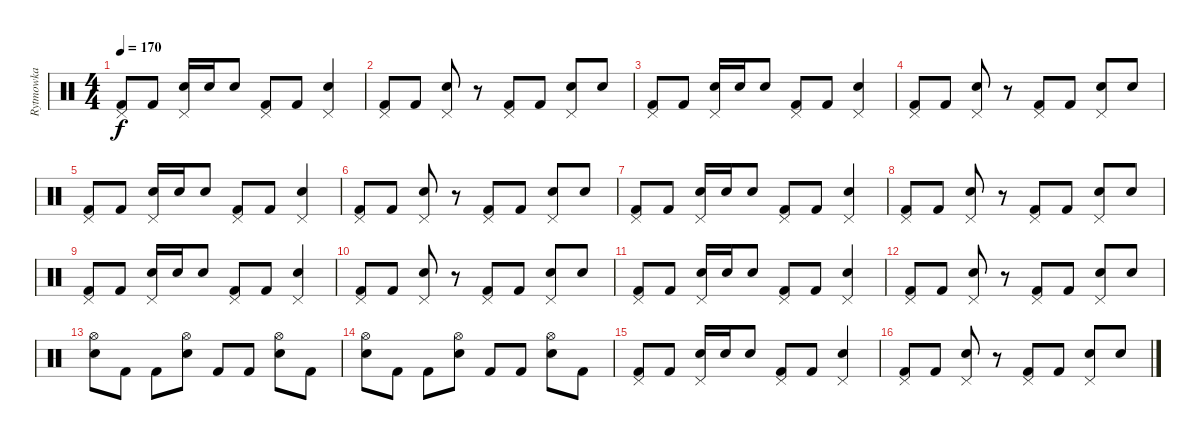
\track ("Rytmowka" "Rytmowka") {instrument percussion}
\staff {score}
\articulation defaults
\ts (4 4)
\tempo 170
\clef neutral
\ks c
("Pedal Hi-Hat (hit)" "Kick (hit) 2").8{dy f} "Kick (hit) 2".8 ("Pedal Hi-Hat (hit)" "Snare (hit) 2").16 "Snare (hit) 2".16 "Snare (hit) 2".8 ("Pedal Hi-Hat (hit)" "Kick (hit) 2").8 "Kick (hit) 2".8 ("Pedal Hi-Hat (hit)" "Snare (hit) 2").4 |
("Pedal Hi-Hat (hit)" "Kick (hit) 2").8 "Kick (hit) 2".8 ("Pedal Hi-Hat (hit)" "Snare (hit) 2").8 r.8 ("Pedal Hi-Hat (hit)" "Kick (hit) 2").8 "Kick (hit) 2".8 ("Pedal Hi-Hat (hit)" "Snare (hit) 2").8 "Snare (hit) 2".8 |
("Pedal Hi-Hat (hit)" "Kick (hit) 2").8 "Kick (hit) 2".8 ("Pedal Hi-Hat (hit)" "Snare (hit) 2").16 "Snare (hit) 2".16 "Snare (hit) 2".8 ("Pedal Hi-Hat (hit)" "Kick (hit) 2").8 "Kick (hit) 2".8 ("Pedal Hi-Hat (hit)" "Snare (hit) 2").4 |
("Pedal Hi-Hat (hit)" "Kick (hit) 2").8 "Kick (hit) 2".8 ("Pedal Hi-Hat (hit)" "Snare (hit) 2").8 r.8 ("Pedal Hi-Hat (hit)" "Kick (hit) 2").8 "Kick (hit) 2".8 ("Pedal Hi-Hat (hit)" "Snare (hit) 2").8 "Snare (hit) 2".8 |
("Pedal Hi-Hat (hit)" "Kick (hit) 2").8 "Kick (hit) 2".8 ("Pedal Hi-Hat (hit)" "Snare (hit) 2").16 "Snare (hit) 2".16 "Snare (hit) 2".8 ("Pedal Hi-Hat (hit)" "Kick (hit) 2").8 "Kick (hit) 2".8 ("Pedal Hi-Hat (hit)" "Snare (hit) 2").4 |
("Pedal Hi-Hat (hit)" "Kick (hit) 2").8 "Kick (hit) 2".8 ("Pedal Hi-Hat (hit)" "Snare (hit) 2").8 r.8 ("Pedal Hi-Hat (hit)" "Kick (hit) 2").8 "Kick (hit) 2".8 ("Pedal Hi-Hat (hit)" "Snare (hit) 2").8 "Snare (hit) 2".8 |
("Pedal Hi-Hat (hit)" "Kick (hit) 2").8 "Kick (hit) 2".8 ("Pedal Hi-Hat (hit)" "Snare (hit) 2").16 "Snare (hit) 2".16 "Snare (hit) 2".8 ("Pedal Hi-Hat (hit)" "Kick (hit) 2").8 "Kick (hit) 2".8 ("Pedal Hi-Hat (hit)" "Snare (hit) 2").4 |
("Pedal Hi-Hat (hit)" "Kick (hit) 2").8 "Kick (hit) 2".8 ("Pedal Hi-Hat (hit)" "Snare (hit) 2").8 r.8 ("Pedal Hi-Hat (hit)" "Kick (hit) 2").8 "Kick (hit) 2".8 ("Pedal Hi-Hat (hit)" "Snare (hit) 2").8 "Snare (hit) 2".8 |
("Pedal Hi-Hat (hit)" "Kick (hit) 2").8 "Kick (hit) 2".8 ("Pedal Hi-Hat (hit)" "Snare (hit) 2").16 "Snare (hit) 2".16 "Snare (hit) 2".8 ("Pedal Hi-Hat (hit)" "Kick (hit) 2").8 "Kick (hit) 2".8 ("Pedal Hi-Hat (hit)" "Snare (hit) 2").4 |
("Pedal Hi-Hat (hit)" "Kick (hit) 2").8 "Kick (hit) 2".8 ("Pedal Hi-Hat (hit)" "Snare (hit) 2").8 r.8 ("Pedal Hi-Hat (hit)" "Kick (hit) 2").8 "Kick (hit) 2".8 ("Pedal Hi-Hat (hit)" "Snare (hit) 2").8 "Snare (hit) 2".8 |
("Pedal Hi-Hat (hit)" "Kick (hit) 2").8 "Kick (hit) 2".8 ("Pedal Hi-Hat (hit)" "Snare (hit) 2").16 "Snare (hit) 2".16 "Snare (hit) 2".8 ("Pedal Hi-Hat (hit)" "Kick (hit) 2").8 "Kick (hit) 2".8 ("Pedal Hi-Hat (hit)" "Snare (hit) 2").4 |
("Pedal Hi-Hat (hit)" "Kick (hit) 2").8 "Kick (hit) 2".8 ("Pedal Hi-Hat (hit)" "Snare (hit) 2").8 r.8 ("Pedal Hi-Hat (hit)" "Kick (hit) 2").8 "Kick (hit) 2".8 ("Pedal Hi-Hat (hit)" "Snare (hit) 2").8 "Snare (hit) 2".8 |
("Hi-Hat (open)" "Snare (hit) 2").8 "Kick (hit) 2".8 "Kick (hit) 2".8 ("Hi-Hat (open)" "Snare (hit) 2").8 "Kick (hit) 2".8 "Kick (hit) 2".8 ("Hi-Hat (open)" "Snare (hit) 2").8 "Kick (hit) 2".8 |
("Hi-Hat (open)" "Snare (hit) 2").8 "Kick (hit) 2".8 "Kick (hit) 2".8 ("Hi-Hat (open)" "Snare (hit) 2").8 "Kick (hit) 2".8 "Kick (hit) 2".8 ("Hi-Hat (open)" "Snare (hit) 2").8 "Kick (hit) 2".8 |
("Pedal Hi-Hat (hit)" "Kick (hit) 2").8 "Kick (hit) 2".8 ("Pedal Hi-Hat (hit)" "Snare (hit) 2").16 "Snare (hit) 2".16 "Snare (hit) 2".8 ("Pedal Hi-Hat (hit)" "Kick (hit) 2").8 "Kick (hit) 2".8 ("Pedal Hi-Hat (hit)" "Snare (hit) 2").4 |
("Pedal Hi-Hat (hit)" "Kick (hit) 2").8 "Kick (hit) 2".8 ("Pedal Hi-Hat (hit)" "Snare (hit) 2").8 r.8 ("Pedal Hi-Hat (hit)" "Kick (hit) 2").8 "Kick (hit) 2".8 ("Pedal Hi-Hat (hit)" "Snare (hit) 2").8 "Snare (hit) 2".8
